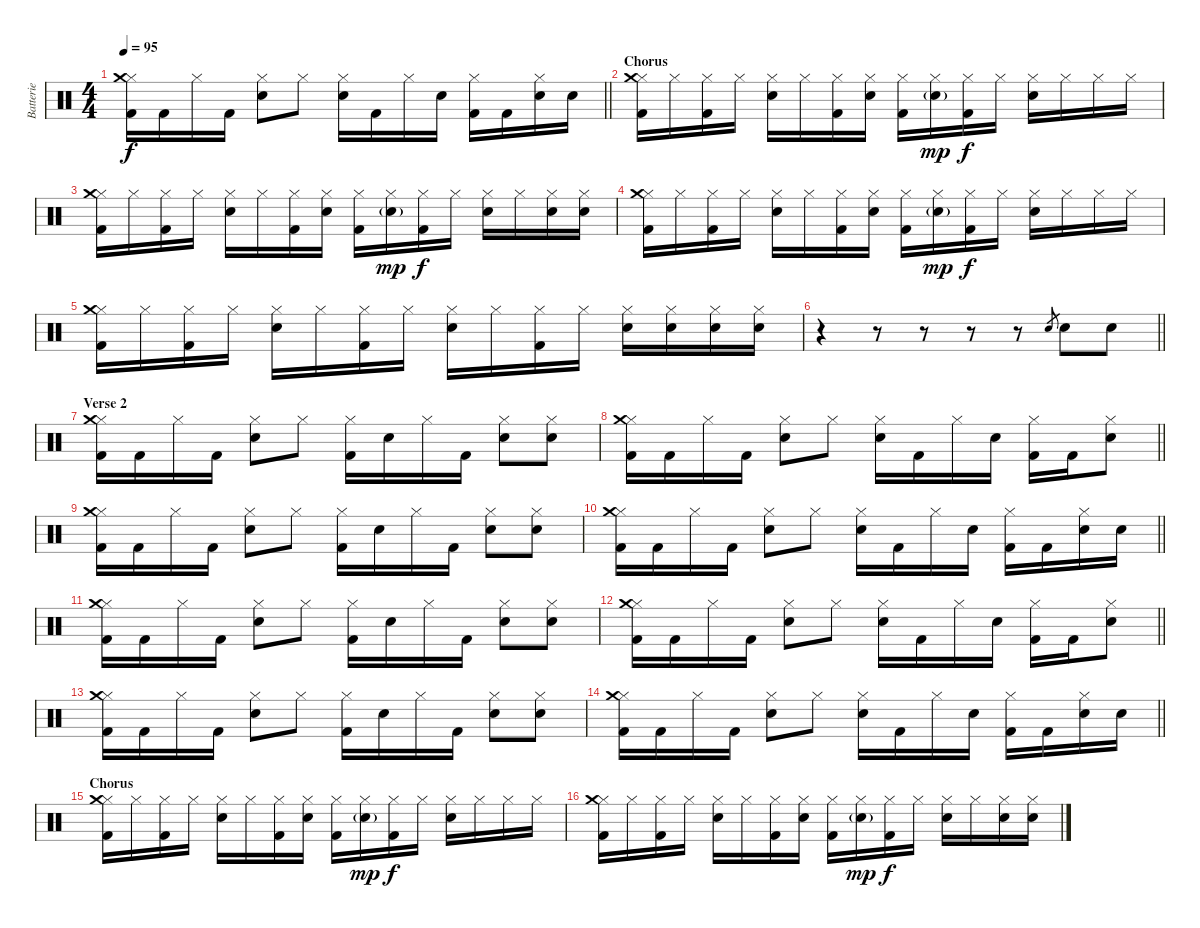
\track ("Batterie" "Batterie") {instrument percussion}
\staff {score}
\articulation defaults
\ts (4 4)
\tempo 95
\clef neutral
\barLineRight lightlight
\ks c
("Hi-Hat (closed)" "Crash medium (hit)" "Kick (hit) 2").16{dy f} "Kick (hit) 2".16 "Hi-Hat (closed)".16 "Kick (hit) 2".16 ("Hi-Hat (closed)" "Electric Snare (hit)").8 "Hi-Hat (closed)".8 ("Hi-Hat (closed)" "Electric Snare (hit)").16 "Kick (hit) 2".16 "Hi-Hat (closed)".16 "Electric Snare (hit)".16 ("Hi-Hat (closed)" "Kick (hit) 2").16 "Kick (hit) 2".16 ("Hi-Hat (closed)" "Electric Snare (hit)").16 "Electric Snare (hit)".16 |
\section ("" "Chorus")
("Hi-Hat (closed)" "Crash medium (hit)" "Kick (hit) 2").16 "Hi-Hat (closed)".16 ("Hi-Hat (closed)" "Kick (hit) 2").16 "Hi-Hat (closed)".16 ("Hi-Hat (closed)" "Electric Snare (hit)").16 "Hi-Hat (closed)".16 ("Hi-Hat (closed)" "Kick (hit) 2").16 ("Hi-Hat (closed)" "Electric Snare (hit)").16 ("Hi-Hat (closed)" "Kick (hit) 2").16 ("Hi-Hat (closed)" "Electric Snare (hit)"{g}).16{dy mp} ("Hi-Hat (closed)" "Kick (hit) 2").16{dy f} "Hi-Hat (closed)".16 ("Hi-Hat (closed)" "Electric Snare (hit)").16 "Hi-Hat (closed)".16 "Hi-Hat (closed)".16 "Hi-Hat (closed)".16 |
("Hi-Hat (closed)" "Crash medium (hit)" "Kick (hit) 2").16 "Hi-Hat (closed)".16 ("Hi-Hat (closed)" "Kick (hit) 2").16 "Hi-Hat (closed)".16 ("Hi-Hat (closed)" "Electric Snare (hit)").16 "Hi-Hat (closed)".16 ("Hi-Hat (closed)" "Kick (hit) 2").16 ("Hi-Hat (closed)" "Electric Snare (hit)").16 ("Hi-Hat (closed)" "Kick (hit) 2").16 ("Hi-Hat (closed)" "Electric Snare (hit)"{g}).16{dy mp} ("Hi-Hat (closed)" "Kick (hit) 2").16{dy f} "Hi-Hat (closed)".16 ("Hi-Hat (closed)" "Electric Snare (hit)").16 "Hi-Hat (closed)".16 ("Hi-Hat (closed)" "Electric Snare (hit)").16 ("Hi-Hat (closed)" "Electric Snare (hit)").16 |
("Hi-Hat (closed)" "Crash medium (hit)" "Kick (hit) 2").16 "Hi-Hat (closed)".16 ("Hi-Hat (closed)" "Kick (hit) 2").16 "Hi-Hat (closed)".16 ("Hi-Hat (closed)" "Electric Snare (hit)").16 "Hi-Hat (closed)".16 ("Hi-Hat (closed)" "Kick (hit) 2").16 ("Hi-Hat (closed)" "Electric Snare (hit)").16 ("Hi-Hat (closed)" "Kick (hit) 2").16 ("Hi-Hat (closed)" "Electric Snare (hit)"{g}).16{dy mp} ("Hi-Hat (closed)" "Kick (hit) 2").16{dy f} "Hi-Hat (closed)".16 ("Hi-Hat (closed)" "Electric Snare (hit)").16 "Hi-Hat (closed)".16 "Hi-Hat (closed)".16 "Hi-Hat (closed)".16 |
("Hi-Hat (closed)" "Crash medium (hit)" "Kick (hit) 2").16 "Hi-Hat (closed)".16 ("Hi-Hat (closed)" "Kick (hit) 2").16 "Hi-Hat (closed)".16 ("Hi-Hat (closed)" "Electric Snare (hit)").16 "Hi-Hat (closed)".16 ("Hi-Hat (closed)" "Kick (hit) 2").16 "Hi-Hat (closed)".16 ("Hi-Hat (closed)" "Electric Snare (hit)").16 "Hi-Hat (closed)".16 ("Hi-Hat (closed)" "Kick (hit) 2").16 "Hi-Hat (closed)".16 ("Hi-Hat (closed)" "Electric Snare (hit)").16 ("Hi-Hat (closed)" "Electric Snare (hit)").16 ("Hi-Hat (closed)" "Electric Snare (hit)").16 ("Hi-Hat (closed)" "Electric Snare (hit)").16 |
\barLineRight lightlight
r.4 r.8 r.8 r.8 r.8 "Electric Snare (hit)".8{gr} "Electric Snare (hit)".8 "Electric Snare (hit)".8 |
\section ("" "Verse 2")
("Hi-Hat (closed)" "Crash medium (hit)" "Kick (hit) 2").16 "Kick (hit) 2".16 "Hi-Hat (closed)".16 "Kick (hit) 2".16 ("Hi-Hat (closed)" "Electric Snare (hit)").8 "Hi-Hat (closed)".8 ("Hi-Hat (closed)" "Kick (hit) 2").16 "Electric Snare (hit)".16 "Hi-Hat (closed)".16 "Kick (hit) 2".16 ("Hi-Hat (closed)" "Electric Snare (hit)").8 ("Hi-Hat (closed)" "Electric Snare (hit)").8 |
\barLineRight lightlight
("Hi-Hat (closed)" "Crash medium (hit)" "Kick (hit) 2").16 "Kick (hit) 2".16 "Hi-Hat (closed)".16 "Kick (hit) 2".16 ("Hi-Hat (closed)" "Electric Snare (hit)").8 "Hi-Hat (closed)".8 ("Hi-Hat (closed)" "Electric Snare (hit)").16 "Kick (hit) 2".16 "Hi-Hat (closed)".16 "Electric Snare (hit)".16 ("Hi-Hat (closed)" "Kick (hit) 2").16 "Kick (hit) 2".16 ("Hi-Hat (closed)" "Electric Snare (hit)").8 |
("Hi-Hat (closed)" "Crash medium (hit)" "Kick (hit) 2").16 "Kick (hit) 2".16 "Hi-Hat (closed)".16 "Kick (hit) 2".16 ("Hi-Hat (closed)" "Electric Snare (hit)").8 "Hi-Hat (closed)".8 ("Hi-Hat (closed)" "Kick (hit) 2").16 "Electric Snare (hit)".16 "Hi-Hat (closed)".16 "Kick (hit) 2".16 ("Hi-Hat (closed)" "Electric Snare (hit)").8 ("Hi-Hat (closed)" "Electric Snare (hit)").8 |
\barLineRight lightlight
("Hi-Hat (closed)" "Crash medium (hit)" "Kick (hit) 2").16 "Kick (hit) 2".16 "Hi-Hat (closed)".16 "Kick (hit) 2".16 ("Hi-Hat (closed)" "Electric Snare (hit)").8 "Hi-Hat (closed)".8 ("Hi-Hat (closed)" "Electric Snare (hit)").16 "Kick (hit) 2".16 "Hi-Hat (closed)".16 "Electric Snare (hit)".16 ("Hi-Hat (closed)" "Kick (hit) 2").16 "Kick (hit) 2".16 ("Hi-Hat (closed)" "Electric Snare (hit)").16 "Electric Snare (hit)".16 |
("Hi-Hat (closed)" "Crash medium (hit)" "Kick (hit) 2").16 "Kick (hit) 2".16 "Hi-Hat (closed)".16 "Kick (hit) 2".16 ("Hi-Hat (closed)" "Electric Snare (hit)").8 "Hi-Hat (closed)".8 ("Hi-Hat (closed)" "Kick (hit) 2").16 "Electric Snare (hit)".16 "Hi-Hat (closed)".16 "Kick (hit) 2".16 ("Hi-Hat (closed)" "Electric Snare (hit)").8 ("Hi-Hat (closed)" "Electric Snare (hit)").8 |
\barLineRight lightlight
("Hi-Hat (closed)" "Crash medium (hit)" "Kick (hit) 2").16 "Kick (hit) 2".16 "Hi-Hat (closed)".16 "Kick (hit) 2".16 ("Hi-Hat (closed)" "Electric Snare (hit)").8 "Hi-Hat (closed)".8 ("Hi-Hat (closed)" "Electric Snare (hit)").16 "Kick (hit) 2".16 "Hi-Hat (closed)".16 "Electric Snare (hit)".16 ("Hi-Hat (closed)" "Kick (hit) 2").16 "Kick (hit) 2".16 ("Hi-Hat (closed)" "Electric Snare (hit)").8 |
("Hi-Hat (closed)" "Crash medium (hit)" "Kick (hit) 2").16 "Kick (hit) 2".16 "Hi-Hat (closed)".16 "Kick (hit) 2".16 ("Hi-Hat (closed)" "Electric Snare (hit)").8 "Hi-Hat (closed)".8 ("Hi-Hat (closed)" "Kick (hit) 2").16 "Electric Snare (hit)".16 "Hi-Hat (closed)".16 "Kick (hit) 2".16 ("Hi-Hat (closed)" "Electric Snare (hit)").8 ("Hi-Hat (closed)" "Electric Snare (hit)").8 |
\barLineRight lightlight
("Hi-Hat (closed)" "Crash medium (hit)" "Kick (hit) 2").16 "Kick (hit) 2".16 "Hi-Hat (closed)".16 "Kick (hit) 2".16 ("Hi-Hat (closed)" "Electric Snare (hit)").8 "Hi-Hat (closed)".8 ("Hi-Hat (closed)" "Electric Snare (hit)").16 "Kick (hit) 2".16 "Hi-Hat (closed)".16 "Electric Snare (hit)".16 ("Hi-Hat (closed)" "Kick (hit) 2").16 "Kick (hit) 2".16 ("Hi-Hat (closed)" "Electric Snare (hit)").16 "Electric Snare (hit)".16 |
\section ("" "Chorus")
("Hi-Hat (closed)" "Crash medium (hit)" "Kick (hit) 2").16 "Hi-Hat (closed)".16 ("Hi-Hat (closed)" "Kick (hit) 2").16 "Hi-Hat (closed)".16 ("Hi-Hat (closed)" "Electric Snare (hit)").16 "Hi-Hat (closed)".16 ("Hi-Hat (closed)" "Kick (hit) 2").16 ("Hi-Hat (closed)" "Electric Snare (hit)").16 ("Hi-Hat (closed)" "Kick (hit) 2").16 ("Hi-Hat (closed)" "Electric Snare (hit)"{g}).16{dy mp} ("Hi-Hat (closed)" "Kick (hit) 2").16{dy f} "Hi-Hat (closed)".16 ("Hi-Hat (closed)" "Electric Snare (hit)").16 "Hi-Hat (closed)".16 "Hi-Hat (closed)".16 "Hi-Hat (closed)".16 |
("Hi-Hat (closed)" "Crash medium (hit)" "Kick (hit) 2").16 "Hi-Hat (closed)".16 ("Hi-Hat (closed)" "Kick (hit) 2").16 "Hi-Hat (closed)".16 ("Hi-Hat (closed)" "Electric Snare (hit)").16 "Hi-Hat (closed)".16 ("Hi-Hat (closed)" "Kick (hit) 2").16 ("Hi-Hat (closed)" "Electric Snare (hit)").16 ("Hi-Hat (closed)" "Kick (hit) 2").16 ("Hi-Hat (closed)" "Electric Snare (hit)"{g}).16{dy mp} ("Hi-Hat (closed)" "Kick (hit) 2").16{dy f} "Hi-Hat (closed)".16 ("Hi-Hat (closed)" "Electric Snare (hit)").16 "Hi-Hat (closed)".16 ("Hi-Hat (closed)" "Electric Snare (hit)").16 ("Hi-Hat (closed)" "Electric Snare (hit)").16
